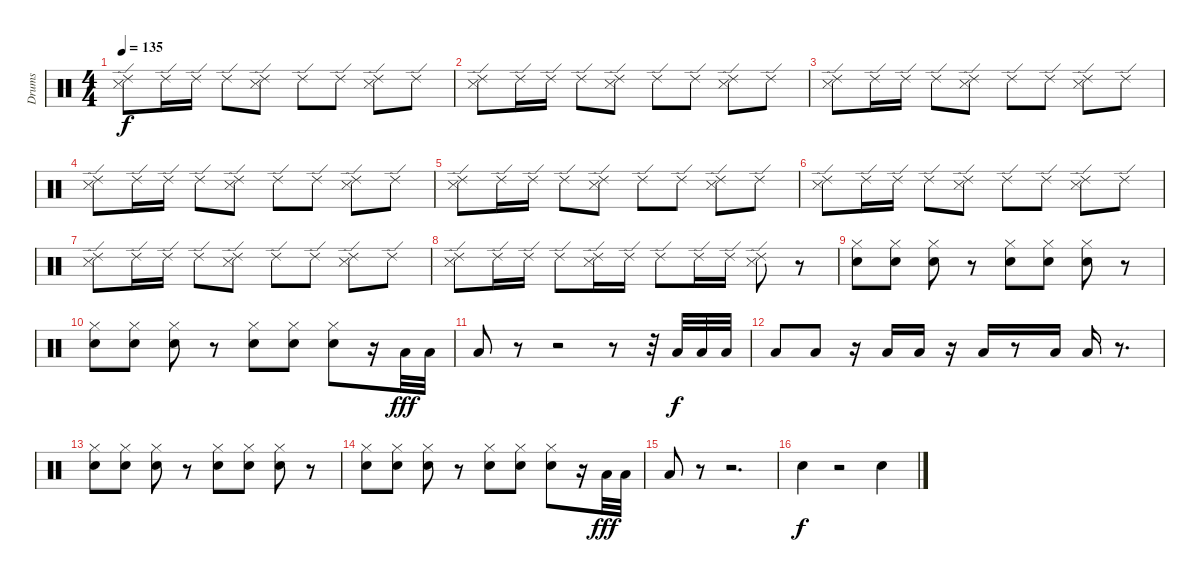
\track ("Drums" "Drums") {instrument percussion}
\staff {score}
\articulation defaults
\ts (4 4)
\tempo 135
\clef neutral
\ks c
("Ride (edge) 2" "Snare (side stick) 3").8{dy f} "Ride (edge) 2".16 "Ride (edge) 2".16 "Ride (edge) 2".8 ("Ride (edge) 2" "Snare (side stick) 3").8 "Ride (edge) 2".8 "Ride (edge) 2".8 ("Ride (edge) 2" "Snare (side stick) 3").8 "Ride (edge) 2".8 |
("Ride (edge) 2" "Snare (side stick) 3").8 "Ride (edge) 2".16 "Ride (edge) 2".16 "Ride (edge) 2".8 ("Ride (edge) 2" "Snare (side stick) 3").8 "Ride (edge) 2".8 "Ride (edge) 2".8 ("Ride (edge) 2" "Snare (side stick) 3").8 "Ride (edge) 2".8 |
("Ride (edge) 2" "Snare (side stick) 3").8 "Ride (edge) 2".16 "Ride (edge) 2".16 "Ride (edge) 2".8 ("Ride (edge) 2" "Snare (side stick) 3").8 "Ride (edge) 2".8 "Ride (edge) 2".8 ("Ride (edge) 2" "Snare (side stick) 3").8 "Ride (edge) 2".8 |
("Ride (edge) 2" "Snare (side stick) 3").8 "Ride (edge) 2".16 "Ride (edge) 2".16 "Ride (edge) 2".8 ("Ride (edge) 2" "Snare (side stick) 3").8 "Ride (edge) 2".8 "Ride (edge) 2".8 ("Ride (edge) 2" "Snare (side stick) 3").8 "Ride (edge) 2".8 |
("Ride (edge) 2" "Snare (side stick) 3").8 "Ride (edge) 2".16 "Ride (edge) 2".16 "Ride (edge) 2".8 ("Ride (edge) 2" "Snare (side stick) 3").8 "Ride (edge) 2".8 "Ride (edge) 2".8 ("Ride (edge) 2" "Snare (side stick) 3").8 "Ride (edge) 2".8 |
("Ride (edge) 2" "Snare (side stick) 3").8 "Ride (edge) 2".16 "Ride (edge) 2".16 "Ride (edge) 2".8 ("Ride (edge) 2" "Snare (side stick) 3").8 "Ride (edge) 2".8 "Ride (edge) 2".8 ("Ride (edge) 2" "Snare (side stick) 3").8 "Ride (edge) 2".8 |
("Ride (edge) 2" "Snare (side stick) 3").8 "Ride (edge) 2".16 "Ride (edge) 2".16 "Ride (edge) 2".8 ("Ride (edge) 2" "Snare (side stick) 3").8 "Ride (edge) 2".8 "Ride (edge) 2".8 ("Ride (edge) 2" "Snare (side stick) 3").8 "Ride (edge) 2".8 |
("Ride (edge) 2" "Snare (side stick) 3").8 "Ride (edge) 2".16 "Ride (edge) 2".16 "Ride (edge) 2".8 ("Ride (edge) 2" "Snare (side stick) 3").16 "Ride (edge) 2".16 "Ride (edge) 2".8 "Ride (edge) 2".16 "Ride (edge) 2".16 ("Ride (edge) 2" "Snare (side stick) 3").8 r.8 |
("Hi-Hat (closed)" "Electric Snare (hit)").8 ("Hi-Hat (closed)" "Electric Snare (hit)").8 ("Hi-Hat (closed)" "Electric Snare (hit)").8 r.8 ("Hi-Hat (closed)" "Electric Snare (hit)").8 ("Hi-Hat (closed)" "Electric Snare (hit)").8 ("Hi-Hat (closed)" "Electric Snare (hit)").8 r.8 |
("Hi-Hat (closed)" "Electric Snare (hit)").8 ("Hi-Hat (closed)" "Electric Snare (hit)").8 ("Hi-Hat (closed)" "Electric Snare (hit)").8 r.8 ("Hi-Hat (closed)" "Electric Snare (hit)").8 ("Hi-Hat (closed)" "Electric Snare (hit)").8 ("Hi-Hat (closed)" "Electric Snare (hit)").8 r.16 "Low Floor Tom (hit)".32{dy fff} "Low Floor Tom (hit)".32 |
"Low Floor Tom (hit)".8 r.8 r.2 r.8 r.32 "Low Tom (hit)".32{dy f} "Low Tom (hit)".32 "Low Tom (hit)".32 |
"Low Tom (hit)".8 "Low Tom (hit)".8 r.16 "Low Tom (hit)".16 "Low Tom (hit)".16 r.16 "Low Tom (hit)".16 r.8 "Low Tom (hit)".16 "Low Tom (hit)".16 r.8{d} |
("Hi-Hat (closed)" "Electric Snare (hit)").8 ("Hi-Hat (closed)" "Electric Snare (hit)").8 ("Hi-Hat (closed)" "Electric Snare (hit)").8 r.8 ("Hi-Hat (closed)" "Electric Snare (hit)").8 ("Hi-Hat (closed)" "Electric Snare (hit)").8 ("Hi-Hat (closed)" "Electric Snare (hit)").8 r.8 |
("Hi-Hat (closed)" "Electric Snare (hit)").8 ("Hi-Hat (closed)" "Electric Snare (hit)").8 ("Hi-Hat (closed)" "Electric Snare (hit)").8 r.8 ("Hi-Hat (closed)" "Electric Snare (hit)").8 ("Hi-Hat (closed)" "Electric Snare (hit)").8 ("Hi-Hat (closed)" "Electric Snare (hit)").8 r.16 "Low Floor Tom (hit)".32{dy fff} "Low Floor Tom (hit)".32 |
"Low Floor Tom (hit)".8 r.8 r.2{d} |
"Electric Snare (hit)".4{dy f} r.2 "Electric Snare (hit)".4
